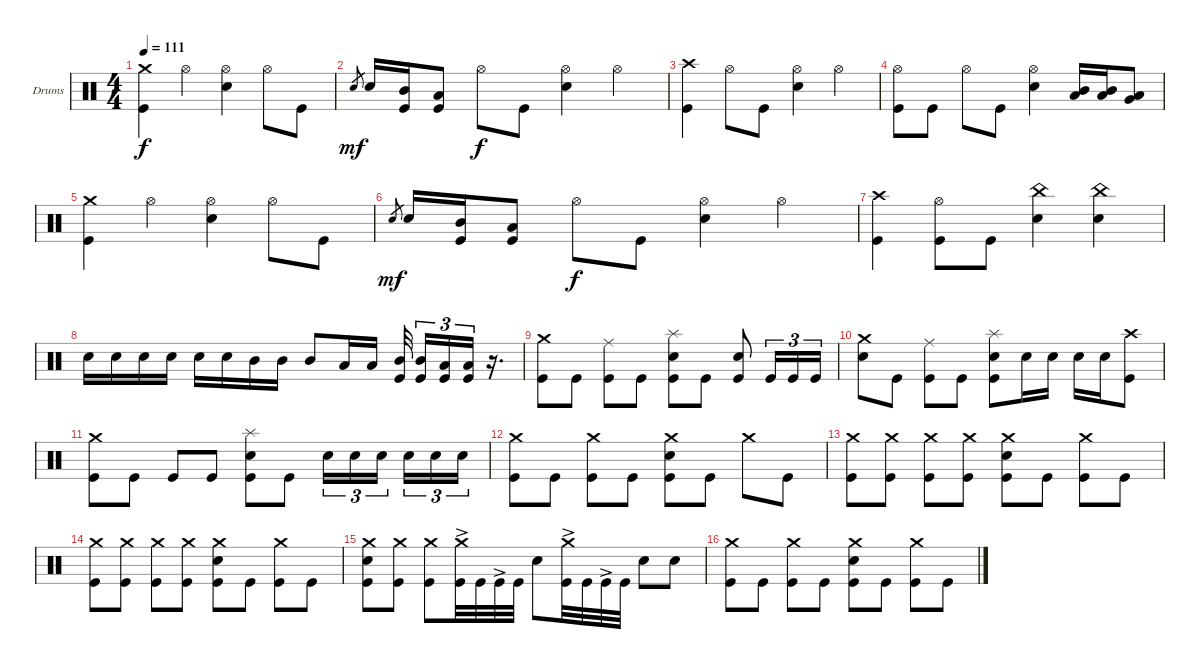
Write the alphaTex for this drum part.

\defaultSystemsLayout 4
\bracketExtendMode groupsimilarinstruments
\firstSystemTrackNameOrientation horizontal
\otherSystemsTrackNameOrientation horizontal
\track ("Drumkit" "Drums") {instrument percussion}
\staff {score}
\articulation defaults
\ts (4 4)
\tempo 111
\clef neutral
\ks c
("Crash medium (hit)" "Kick (hit)").4{dy f} "Hi-Hat (open)".4 ("Snare (hit) 2" "Hi-Hat (open)").4 "Hi-Hat (open)".8 "Kick (hit)".8 |
"Snare (hit) 2".8{gr dy mf} "Snare (hit) 2".16 ("Kick (hit)" "Mid Tom (hit)").16 ("Kick (hit)" "Low Tom (hit)").8 "Hi-Hat (open)".8{dy f} "Kick (hit)".8 ("Snare (hit) 2" "Hi-Hat (open)").4 "Hi-Hat (open)".4 |
("Kick (hit)" "Crash high (hit)").4 "Hi-Hat (open)".8 "Kick (hit)".8 ("Snare (hit) 2" "Hi-Hat (open)").4 "Hi-Hat (open)".4 |
("Hi-Hat (open)" "Kick (hit)").8 "Kick (hit)".8 "Hi-Hat (open)".8 "Kick (hit)".8 ("Hi-Hat (open)" "Snare (hit) 2").4 ("Low Tom (hit)" "Mid Tom (hit)").16 ("Low Tom (hit)" "Mid Tom (hit)").16 ("Very Low Tom (hit)" "Low Tom (hit)").8 |
("Crash medium (hit)" "Kick (hit)").4 "Hi-Hat (open)".4 ("Snare (hit) 2" "Hi-Hat (open)").4 "Hi-Hat (open)".8 "Kick (hit)".8 |
"Snare (hit) 2".8{gr dy mf} "Snare (hit) 2".16 ("Kick (hit)" "Mid Tom (hit)").16 ("Kick (hit)" "Low Tom (hit)").8 "Hi-Hat (open)".8{dy f} "Kick (hit)".8 ("Snare (hit) 2" "Hi-Hat (open)").4 "Hi-Hat (open)".4 |
("Kick (hit)" "Crash high (hit)").4 ("Kick (hit)" "Hi-Hat (open)").8 "Kick (hit)".8 ("China (hit)" "Snare (hit) 2").4 ("China (hit)" "Snare (hit) 2").4 |
"Snare (hit) 2".16 "Snare (hit) 2".16 "Snare (hit) 2".16 "Snare (hit) 2".16 "Snare (hit) 2".16 "Snare (hit) 2".16 "Mid Tom (hit)".16 "Mid Tom (hit)".16 "Mid Tom (hit)".8 "Low Tom (hit)".16 "Low Tom (hit)".16 ("Kick (hit)" "Mid Tom (hit)").32 ("Kick (hit)" "Mid Tom (hit)").16{tu (3 2)} ("Kick (hit)" "Low Tom (hit)").16{tu (3 2)} ("Kick (hit)" "Low Tom (hit)").16{tu (3 2)} r.16{d} |
("Crash medium (hit)" "Kick (hit)").8 "Kick (hit)".8 ("Ride (middle)" "Kick (hit)").8 "Kick (hit)".8 ("Splash (hit)" "Snare (hit) 2" "Kick (hit)").8 "Kick (hit)".8 ("Snare (hit) 2" "Kick (hit)").8 "Kick (hit)".16{tu (3 2)} "Kick (hit)".16{tu (3 2)} "Kick (hit)".16{tu (3 2)} |
("Crash medium (hit)" "Snare (hit) 2").8 "Kick (hit)".8 ("Ride (middle)" "Kick (hit)").8 "Kick (hit)".8 ("Splash (hit)" "Snare (hit) 2" "Kick (hit)").8 "Snare (hit) 2".16 "Snare (hit) 2".16 "Snare (hit) 2".16 "Snare (hit) 2".16 ("Crash high (hit)" "Kick (hit)").8 |
("Crash medium (hit)" "Kick (hit)").8 "Kick (hit)".8 "Kick (hit)".8 "Kick (hit)".8 ("Splash (hit)" "Snare (hit) 2" "Kick (hit)").8 "Kick (hit)".8 "Snare (hit) 2".16{tu (3 2)} "Snare (hit) 2".16{tu (3 2)} "Snare (hit) 2".16{tu (3 2)} "Snare (hit) 2".16{tu (3 2)} "Snare (hit) 2".16{tu (3 2)} "Snare (hit) 2".16{tu (3 2)} |
("Crash medium (hit)" "Kick (hit)").8 "Kick (hit)".8 ("Crash medium (hit)" "Kick (hit)").8 "Kick (hit)".8 ("Crash medium (hit)" "Snare (hit) 2" "Kick (hit)").8 "Kick (hit)".8 "Crash medium (hit)".8 "Kick (hit)".8 |
("Crash medium (hit)" "Kick (hit)").8 ("Crash medium (hit)" "Kick (hit)").8 ("Crash medium (hit)" "Kick (hit)").8 ("Crash medium (hit)" "Kick (hit)").8 ("Crash medium (hit)" "Snare (hit) 2" "Kick (hit)").8 "Kick (hit)".8 ("Crash medium (hit)" "Kick (hit)").8 "Kick (hit)".8 |
("Crash medium (hit)" "Kick (hit)").8 ("Crash medium (hit)" "Kick (hit)").8 ("Crash medium (hit)" "Kick (hit)").8 ("Crash medium (hit)" "Kick (hit)").8 ("Snare (hit) 2" "Kick (hit)" "Crash medium (hit)").8 "Kick (hit)".8 ("Kick (hit)" "Crash medium (hit)").8 "Kick (hit)".8 |
("Crash medium (hit)" "Snare (hit) 2" "Kick (hit)").8 ("Crash medium (hit)" "Kick (hit)").8 ("Crash medium (hit)" "Kick (hit)").8 ("Crash medium (hit)" "Kick (hit)"{ac}).32 "Kick (hit)".32 "Kick (hit)"{ac}.32 "Kick (hit)".32 "Snare (hit) 2".8 ("Crash medium (hit)" "Kick (hit)"{ac}).32 "Kick (hit)".32 "Kick (hit)"{ac}.32 "Kick (hit)".32 "Snare (hit) 2".8 "Snare (hit) 2".8 |
("Crash medium (hit)" "Kick (hit)").8 "Kick (hit)".8 ("Crash medium (hit)" "Kick (hit)").8 "Kick (hit)".8 ("Crash medium (hit)" "Snare (hit) 2" "Kick (hit)").8 "Kick (hit)".8 ("Crash medium (hit)" "Kick (hit)").8 "Kick (hit)".8
